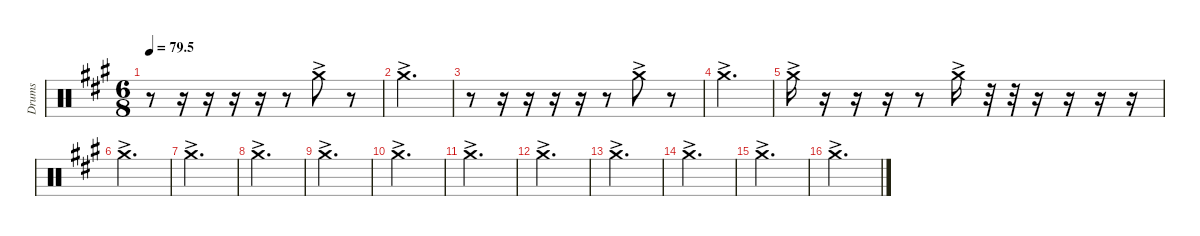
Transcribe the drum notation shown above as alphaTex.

\defaultSystemsLayout 4
\hideDynamics
\bracketExtendMode nobrackets
\otherSystemsTrackNameOrientation horizontal
\track ("Right crash" "Drums") {instrument percussion}
\staff {score}
\articulation defaults
\ts (6 8)
\tempo
79.5
\accidentals auto
\clef neutral
\ottava regular
\simile none
\scale
0.333333
\ks a
r.8{dy f} r.16 r.16 r.16 r.16 r.8 "Crash medium (hit)"{ac acc forcenatural}.8 r.8 |
\scale
0.333333 "Crash medium (hit)"{ac acc forcenatural}.2{d} |
\scale
0.333333 r.8 r.16 r.16 r.16 r.16 r.8 "Crash medium (hit)"{ac acc forcenatural}.8 r.8 |
\scale
0.333333 "Crash medium (hit)"{ac acc forcenatural}.2{d} |
\scale
0.333333 "Crash medium (hit)"{ac acc forcenatural}.16 r.16 r.16 r.16 r.8 "Crash medium (hit)"{ac acc forcenatural}.16 r.32 r.32 r.16 r.16 r.16 r.16 |
\scale
0.333333 "Crash medium (hit)"{ac acc forcenatural}.2{d} |
\scale
0.333333 "Crash medium (hit)"{ac acc forcenatural}.2{d} |
\scale
0.333333 "Crash medium (hit)"{ac acc forcenatural}.2{d} |
\scale
0.333333 "Crash medium (hit)"{ac acc forcenatural}.2{d} |
\scale
0.333333 "Crash medium (hit)"{ac acc forcenatural}.2{d} |
\scale
0.333333 "Crash medium (hit)"{ac acc forcenatural}.2{d} |
\scale
0.333333 "Crash medium (hit)"{ac acc forcenatural}.2{d} |
\scale
0.333333 "Crash medium (hit)"{ac acc forcenatural}.2{d} |
\scale
0.333333 "Crash medium (hit)"{ac acc forcenatural}.2{d} |
\scale
0.333333 "Crash medium (hit)"{ac acc forcenatural}.2{d} |
\scale
0.333333 "Crash medium (hit)"{ac acc forcenatural}.2{d}
